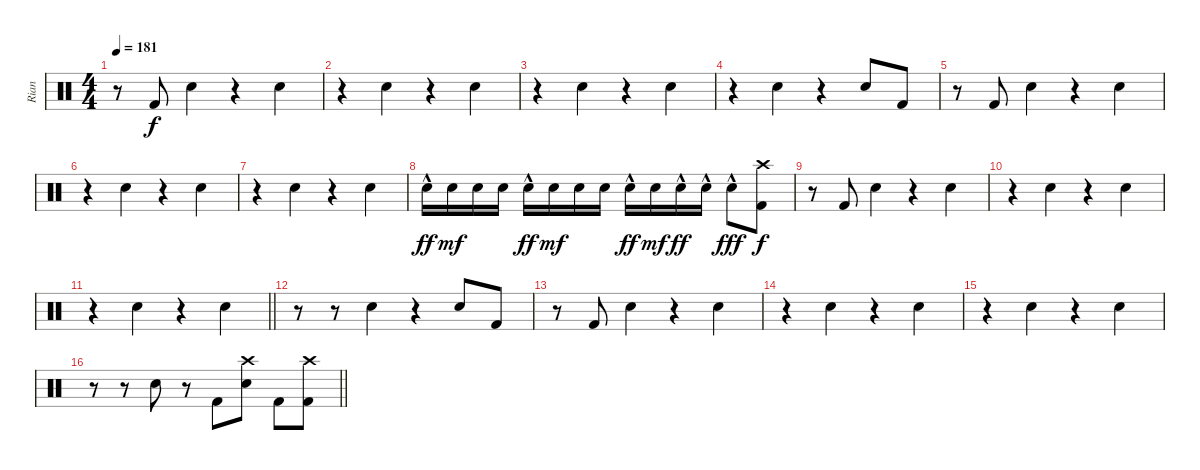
\track ("Rian" "Rian") {instrument percussion bank 255}
\staff {score}
\articulation defaults
\ts (4 4)
\tempo 181
\clef neutral
\ks c
r.8{dy f} "Kick (hit) 2".8 "Electric Snare (hit)".4 r.4 "Electric Snare (hit)".4 |
r.4 "Electric Snare (hit)".4 r.4 "Electric Snare (hit)".4 |
r.4 "Electric Snare (hit)".4 r.4 "Electric Snare (hit)".4 |
r.4 "Electric Snare (hit)".4 r.4 "Electric Snare (hit)".8 "Kick (hit) 2".8 |
r.8 "Kick (hit) 2".8 "Electric Snare (hit)".4 r.4 "Electric Snare (hit)".4 |
r.4 "Electric Snare (hit)".4 r.4 "Electric Snare (hit)".4 |
r.4 "Electric Snare (hit)".4 r.4 "Electric Snare (hit)".4 |
"Electric Snare (hit)"{hac}.16{dy ff} "Electric Snare (hit)".16{dy mf} "Electric Snare (hit)".16 "Electric Snare (hit)".16 "Electric Snare (hit)"{hac}.16{dy ff} "Electric Snare (hit)".16{dy mf} "Electric Snare (hit)".16 "Electric Snare (hit)".16 "Electric Snare (hit)"{hac}.16{dy ff} "Electric Snare (hit)".16{dy mf} "Electric Snare (hit)"{hac}.16{dy ff} "Electric Snare (hit)"{hac}.16 "Electric Snare (hit)"{hac}.8{dy fff} ("Crash high (hit)" "Kick (hit) 2").8{dy f} |
r.8 "Kick (hit) 2".8 "Electric Snare (hit)".4 r.4 "Electric Snare (hit)".4 |
r.4 "Electric Snare (hit)".4 r.4 "Electric Snare (hit)".4 |
\barLineRight lightlight
r.4 "Electric Snare (hit)".4 r.4 "Electric Snare (hit)".4 |
r.8 r.8 "Electric Snare (hit)".4 r.4 "Electric Snare (hit)".8 "Kick (hit) 2".8 |
r.8 "Kick (hit) 2".8 "Electric Snare (hit)".4 r.4 "Electric Snare (hit)".4 |
r.4 "Electric Snare (hit)".4 r.4 "Electric Snare (hit)".4 |
r.4 "Electric Snare (hit)".4 r.4 "Electric Snare (hit)".4 |
\barLineRight lightlight
r.8 r.8 "Electric Snare (hit)".8 r.8 "Kick (hit) 2".8 ("Crash high (hit)" "Electric Snare (hit)").8 "Kick (hit) 2".8 ("Crash high (hit)" "Kick (hit) 2").8
